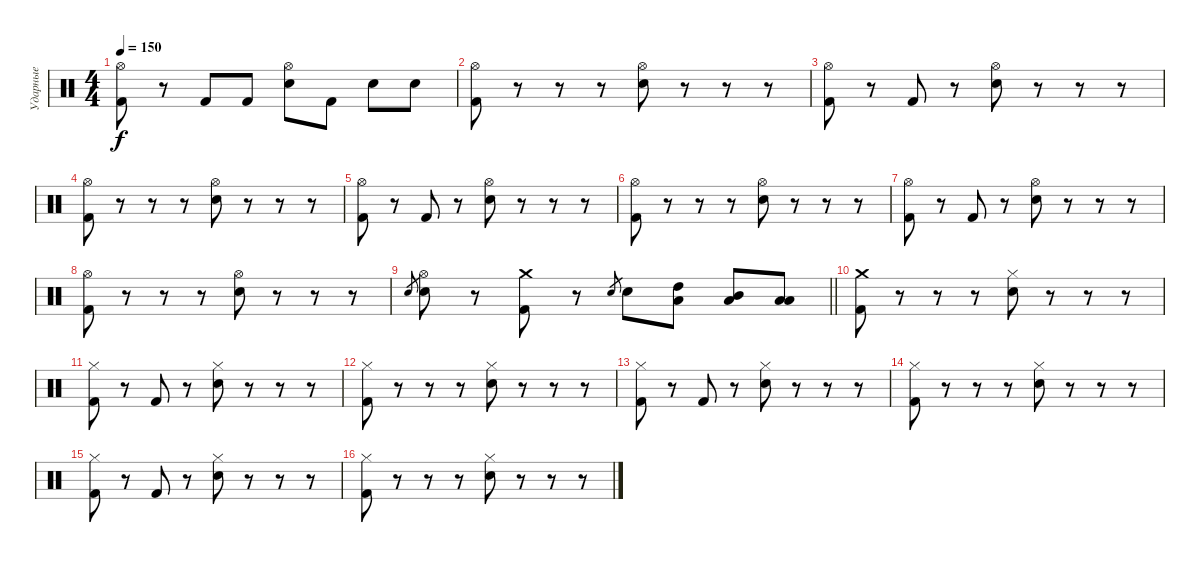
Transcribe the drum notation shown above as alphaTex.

\track ("Ударные" "Ударные") {instrument percussion}
\staff {score}
\articulation defaults
\ts (4 4)
\tempo 150
\clef neutral
\ks c
("Hi-Hat (open)" "Kick (hit) 2").8{dy f} r.8 "Kick (hit) 2".8 "Kick (hit) 2".8 ("Hi-Hat (open)" "Electric Snare (hit)").8 "Kick (hit) 2".8 "Electric Snare (hit)".8 "Electric Snare (hit)".8 |
("Hi-Hat (open)" "Kick (hit) 2").8 r.8 r.8 r.8 ("Hi-Hat (open)" "Electric Snare (hit)").8 r.8 r.8 r.8 |
("Hi-Hat (open)" "Kick (hit) 2").8 r.8 "Kick (hit) 2".8 r.8 ("Hi-Hat (open)" "Electric Snare (hit)").8 r.8 r.8 r.8 |
("Hi-Hat (open)" "Kick (hit) 2").8 r.8 r.8 r.8 ("Hi-Hat (open)" "Electric Snare (hit)").8 r.8 r.8 r.8 |
("Hi-Hat (open)" "Kick (hit) 2").8 r.8 "Kick (hit) 2".8 r.8 ("Hi-Hat (open)" "Electric Snare (hit)").8 r.8 r.8 r.8 |
("Hi-Hat (open)" "Kick (hit) 2").8 r.8 r.8 r.8 ("Hi-Hat (open)" "Electric Snare (hit)").8 r.8 r.8 r.8 |
("Hi-Hat (open)" "Kick (hit) 2").8 r.8 "Kick (hit) 2".8 r.8 ("Hi-Hat (open)" "Electric Snare (hit)").8 r.8 r.8 r.8 |
("Hi-Hat (open)" "Kick (hit) 2").8 r.8 r.8 r.8 ("Hi-Hat (open)" "Electric Snare (hit)").8 r.8 r.8 r.8 |
\barLineRight lightlight "Electric Snare (hit)".8{gr}
("Hi-Hat (open)" "Electric Snare (hit)").8 r.8 ("Crash medium (hit)" "Kick (hit) 2").8 r.8 "Electric Snare (hit)".8{gr} "Electric Snare (hit)".8 ("Low Tom (hit)" "High Tom (hit)").8 ("Low Tom (hit)" "Mid Tom (hit)").8 ("Low Tom (hit)" "Low Tom (hit)").8 |
("Crash medium (hit)" "Kick (hit) 2").8 r.8 r.8 r.8 ("Hi-Hat (closed)" "Electric Snare (hit)").8 r.8 r.8 r.8 |
("Hi-Hat (closed)" "Kick (hit) 2").8 r.8 "Kick (hit) 2".8 r.8 ("Hi-Hat (closed)" "Electric Snare (hit)").8 r.8 r.8 r.8 |
("Hi-Hat (closed)" "Kick (hit) 2").8 r.8 r.8 r.8 ("Hi-Hat (closed)" "Electric Snare (hit)").8 r.8 r.8 r.8 |
("Hi-Hat (closed)" "Kick (hit) 2").8 r.8 "Kick (hit) 2".8 r.8 ("Hi-Hat (closed)" "Electric Snare (hit)").8 r.8 r.8 r.8 |
("Hi-Hat (closed)" "Kick (hit) 2").8 r.8 r.8 r.8 ("Hi-Hat (closed)" "Electric Snare (hit)").8 r.8 r.8 r.8 |
("Hi-Hat (closed)" "Kick (hit) 2").8 r.8 "Kick (hit) 2".8 r.8 ("Hi-Hat (closed)" "Electric Snare (hit)").8 r.8 r.8 r.8 |
("Hi-Hat (closed)" "Kick (hit) 2").8 r.8 r.8 r.8 ("Hi-Hat (closed)" "Electric Snare (hit)").8 r.8 r.8 r.8
